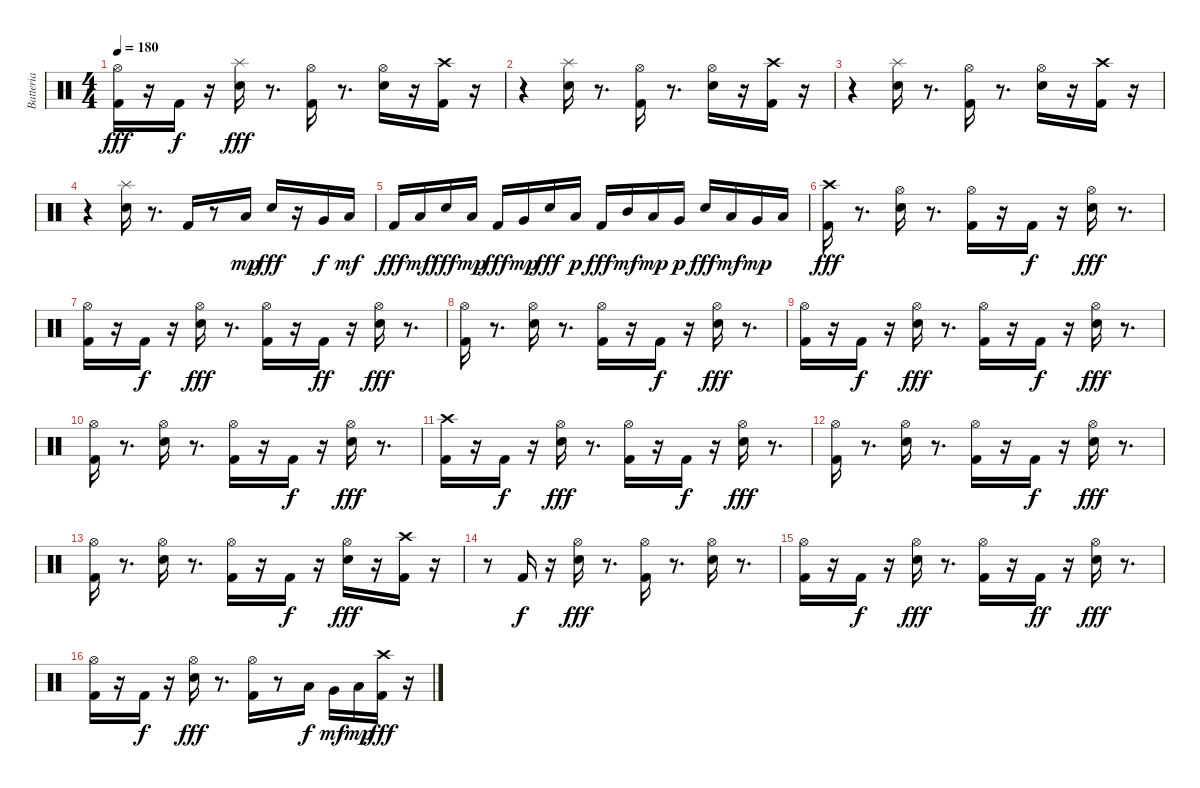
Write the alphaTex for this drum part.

\track ("Batteria" "Batteria") {instrument percussion}
\staff {score}
\articulation defaults
\ts (4 4)
\tempo 180
\clef neutral
\ks c
("Hi-Hat (open)" "Kick (hit) 2").16{dy fff} r.16 "Kick (hit) 2".16{dy f} r.16 ("Splash (hit)" "Electric Snare (hit)").16{dy fff} r.8{d} ("Kick (hit) 2" "Hi-Hat (open)").16 r.8{d} ("Hi-Hat (open)" "Electric Snare (hit)").16 r.16 ("Crash high (hit)" "Kick (hit) 2").16 r.16 |
r.4 ("Splash (hit)" "Electric Snare (hit)").16 r.8{d} ("Hi-Hat (open)" "Kick (hit) 2").16 r.8{d} ("Hi-Hat (open)" "Electric Snare (hit)").16 r.16 ("Crash high (hit)" "Kick (hit) 2").16 r.16 |
r.4 ("Splash (hit)" "Electric Snare (hit)").16 r.8{d} ("Hi-Hat (open)" "Kick (hit) 2").16 r.8{d} ("Electric Snare (hit)" "Hi-Hat (open)").16 r.16 ("Crash high (hit)" "Kick (hit) 2").16 r.16 |
r.4 ("Splash (hit)" "Electric Snare (hit)").16 r.8{d} "Kick (hit) 2".16 r.8 "Low Floor Tom (hit)".16{dy mp} "Electric Snare (hit)".16{dy fff} r.16 "Very Low Tom (hit)".16{dy f} "Low Floor Tom (hit)".16{dy mf} |
"Kick (hit) 2".16{dy fff} "Low Tom (hit)".16{dy mf} "Electric Snare (hit)".16{dy fff} "Low Tom (hit)".16{dy mp} "Kick (hit) 2".16{dy fff} "Very Low Tom (hit)".16{dy mp} "Electric Snare (hit)".16{dy fff} "Low Floor Tom (hit)".16{dy p} "Kick (hit) 2".16{dy fff} "Mid Tom (hit)".16{dy mf} "Low Tom (hit)".16{dy mp} "Very Low Tom (hit)".16{dy p} "Electric Snare (hit)".16{dy fff} "Low Tom (hit)".16{dy mf} "Very Low Tom (hit)".16{dy mp} "Low Floor Tom (hit)".16 |
("Crash high (hit)" "Kick (hit) 2").16{dy fff} r.8{d} ("Electric Snare (hit)" "Hi-Hat (open)").16 r.8{d} ("Hi-Hat (open)" "Kick (hit) 2").16 r.16 "Kick (hit) 2".16{dy f} r.16 ("Electric Snare (hit)" "Hi-Hat (open)").16{dy fff} r.8{d} |
("Hi-Hat (open)" "Kick (hit) 2").16 r.16 "Kick (hit) 2".16{dy f} r.16 ("Hi-Hat (open)" "Electric Snare (hit)").16{dy fff} r.8{d} ("Kick (hit) 2" "Hi-Hat (open)").16 r.16 "Kick (hit) 2".16{dy ff} r.16 ("Hi-Hat (open)" "Electric Snare (hit)").16{dy fff} r.8{d} |
("Hi-Hat (open)" "Kick (hit) 2").16 r.8{d} ("Hi-Hat (open)" "Electric Snare (hit)").16 r.8{d} ("Hi-Hat (open)" "Kick (hit) 2").16 r.16 "Kick (hit) 2".16{dy f} r.16 ("Hi-Hat (open)" "Electric Snare (hit)").16{dy fff} r.8{d} |
("Kick (hit) 2" "Hi-Hat (open)").16 r.16 "Kick (hit) 2".16{dy f} r.16 ("Electric Snare (hit)" "Hi-Hat (open)").16{dy fff} r.8{d} ("Hi-Hat (open)" "Kick (hit) 2").16 r.16 "Kick (hit) 2".16{dy f} r.16 ("Electric Snare (hit)" "Hi-Hat (open)").16{dy fff} r.8{d} |
("Kick (hit) 2" "Hi-Hat (open)").16 r.8{d} ("Electric Snare (hit)" "Hi-Hat (open)").16 r.8{d} ("Hi-Hat (open)" "Kick (hit) 2").16 r.16 "Kick (hit) 2".16{dy f} r.16 ("Electric Snare (hit)" "Hi-Hat (open)").16{dy fff} r.8{d} |
("Crash high (hit)" "Kick (hit) 2").16 r.16 "Kick (hit) 2".16{dy f} r.16 ("Hi-Hat (open)" "Electric Snare (hit)").16{dy fff} r.8{d} ("Kick (hit) 2" "Hi-Hat (open)").16 r.16 "Kick (hit) 2".16{dy f} r.16 ("Hi-Hat (open)" "Electric Snare (hit)").16{dy fff} r.8{d} |
("Hi-Hat (open)" "Kick (hit) 2").16 r.8{d} ("Hi-Hat (open)" "Electric Snare (hit)").16 r.8{d} ("Hi-Hat (open)" "Kick (hit) 2").16 r.16 "Kick (hit) 2".16{dy f} r.16 ("Hi-Hat (open)" "Electric Snare (hit)").16{dy fff} r.8{d} |
("Kick (hit) 2" "Hi-Hat (open)").16 r.8{d} ("Electric Snare (hit)" "Hi-Hat (open)").16 r.8{d} ("Kick (hit) 2" "Hi-Hat (open)").16 r.16 "Kick (hit) 2".16{dy f} r.16 ("Electric Snare (hit)" "Hi-Hat (open)").16{dy fff} r.16 ("Crash high (hit)" "Kick (hit) 2").16 r.16 |
r.8 "Kick (hit) 2".16{dy f} r.16 ("Electric Snare (hit)" "Hi-Hat (open)").16{dy fff} r.8{d} ("Hi-Hat (open)" "Kick (hit) 2").16 r.8{d} ("Electric Snare (hit)" "Hi-Hat (open)").16 r.8{d} |
("Kick (hit) 2" "Hi-Hat (open)").16 r.16 "Kick (hit) 2".16{dy f} r.16 ("Electric Snare (hit)" "Hi-Hat (open)").16{dy fff} r.8{d} ("Hi-Hat (open)" "Kick (hit) 2").16 r.16 "Kick (hit) 2".16{dy ff} r.16 ("Electric Snare (hit)" "Hi-Hat (open)").16{dy fff} r.8{d} |
("Hi-Hat (open)" "Kick (hit) 2").16 r.16 "Kick (hit) 2".16{dy f} r.16 ("Hi-Hat (open)" "Electric Snare (hit)").16{dy fff} r.8{d} ("Kick (hit) 2" "Hi-Hat (open)").16 r.8 "Low Tom (hit)".16{dy f} "Very Low Tom (hit)".16{dy mf} "Low Floor Tom (hit)".16{dy mp} ("Crash high (hit)" "Kick (hit) 2").16{dy fff} r.16
